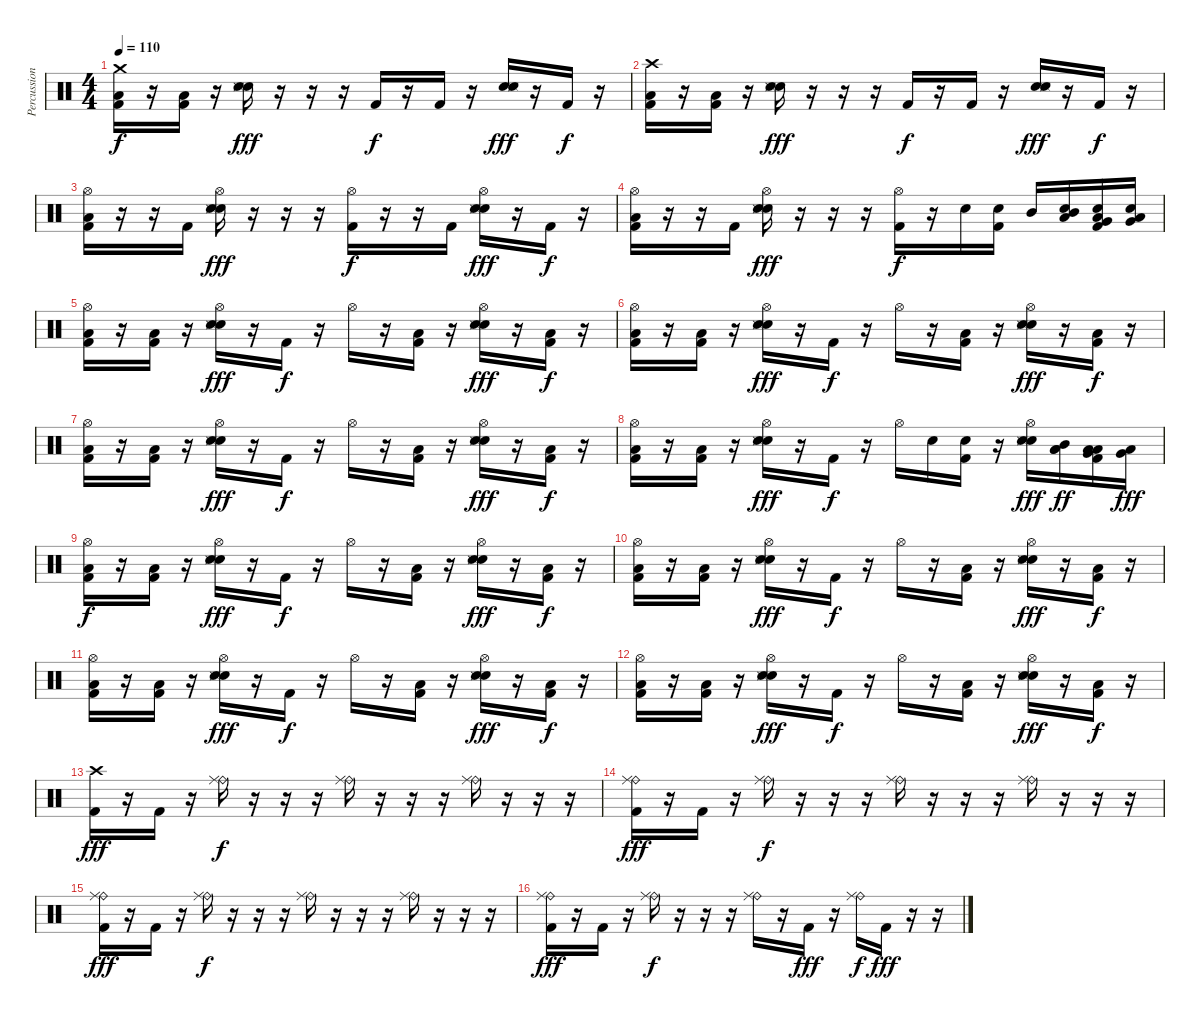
\track ("Percussion" "Percussion") {instrument percussion}
\staff {score}
\articulation defaults
\ts (4 4)
\tempo 110
\clef neutral
\ks c
("Crash medium (hit)" "Low Floor Tom (hit)" "Kick (hit) 2").16{dy f} r.16 ("Low Floor Tom (hit)" "Kick (hit) 2").16 r.16 ("Electric Snare (hit)" "Electric Snare (hit)" "Snare (side stick) 3").16{dy fff} r.16 r.16 r.16 "Kick (hit) 2".16{dy f} r.16 "Kick (hit) 2".16 r.16 ("Electric Snare (hit)" "Electric Snare (hit)" "Snare (side stick) 3").16{dy fff} r.16 "Kick (hit) 2".16{dy f} r.16 |
("Crash high (hit)" "Low Floor Tom (hit)" "Kick (hit) 2").16 r.16 ("Low Floor Tom (hit)" "Kick (hit) 2").16 r.16 ("Electric Snare (hit)" "Electric Snare (hit)" "Snare (side stick) 3").16{dy fff} r.16 r.16 r.16 "Kick (hit) 2".16{dy f} r.16 "Kick (hit) 2".16 r.16 ("Electric Snare (hit)" "Electric Snare (hit)" "Snare (side stick) 3").16{dy fff} r.16 "Kick (hit) 2".16{dy f} r.16 |
("Hi-Hat (open)" "Low Floor Tom (hit)" "Kick (hit) 2").16 r.16 r.16 "Kick (hit) 2".16 ("Hi-Hat (open)" "Electric Snare (hit)" "Electric Snare (hit)" "Snare (side stick) 3").16{dy fff} r.16 r.16 r.16 ("Hi-Hat (open)" "Kick (hit) 2").16{dy f} r.16 r.16 "Kick (hit) 2".16 ("Hi-Hat (open)" "Electric Snare (hit)" "Electric Snare (hit)" "Snare (side stick) 3").16{dy fff} r.16 "Kick (hit) 2".16{dy f} r.16 |
("Hi-Hat (open)" "Low Floor Tom (hit)" "Kick (hit) 2").16 r.16 r.16 "Kick (hit) 2".16 ("Hi-Hat (open)" "Electric Snare (hit)" "Electric Snare (hit)" "Snare (side stick) 3").16{dy fff} r.16 r.16 r.16 ("Hi-Hat (open)" "Kick (hit) 2").16{dy f} r.16 "Electric Snare (hit)".16 ("Electric Snare (hit)" "Kick (hit) 2").16 "Mid Tom (hit)".16 ("Mid Tom (hit)" "Low Tom (hit)" "Electric Snare (hit)").16 ("Low Tom (hit)" "Very Low Tom (hit)" "Electric Snare (hit)" "Kick (hit) 2").16 ("Very Low Tom (hit)" "Low Floor Tom (hit)" "Electric Snare (hit)").16 |
("Hi-Hat (open)" "Low Floor Tom (hit)" "Kick (hit) 2").16 r.16 ("Low Floor Tom (hit)" "Kick (hit) 2").16 r.16 ("Hi-Hat (open)" "Electric Snare (hit)" "Electric Snare (hit)" "Snare (side stick) 3").16{dy fff} r.16 "Kick (hit) 2".16{dy f} r.16 "Hi-Hat (open)".16 r.16 ("Low Floor Tom (hit)" "Kick (hit) 2").16 r.16 ("Hi-Hat (open)" "Electric Snare (hit)" "Electric Snare (hit)" "Snare (side stick) 3").16{dy fff} r.16 ("Low Floor Tom (hit)" "Kick (hit) 2").16{dy f} r.16 |
("Hi-Hat (open)" "Low Floor Tom (hit)" "Kick (hit) 2").16 r.16 ("Low Floor Tom (hit)" "Kick (hit) 2").16 r.16 ("Hi-Hat (open)" "Electric Snare (hit)" "Electric Snare (hit)" "Snare (side stick) 3").16{dy fff} r.16 "Kick (hit) 2".16{dy f} r.16 "Hi-Hat (open)".16 r.16 ("Low Floor Tom (hit)" "Kick (hit) 2").16 r.16 ("Hi-Hat (open)" "Electric Snare (hit)" "Electric Snare (hit)" "Snare (side stick) 3").16{dy fff} r.16 ("Low Floor Tom (hit)" "Kick (hit) 2").16{dy f} r.16 |
("Hi-Hat (open)" "Low Floor Tom (hit)" "Kick (hit) 2").16 r.16 ("Low Floor Tom (hit)" "Kick (hit) 2").16 r.16 ("Hi-Hat (open)" "Electric Snare (hit)" "Electric Snare (hit)" "Snare (side stick) 3").16{dy fff} r.16 "Kick (hit) 2".16{dy f} r.16 "Hi-Hat (open)".16 r.16 ("Low Floor Tom (hit)" "Kick (hit) 2").16 r.16 ("Hi-Hat (open)" "Electric Snare (hit)" "Electric Snare (hit)" "Snare (side stick) 3").16{dy fff} r.16 ("Low Floor Tom (hit)" "Kick (hit) 2").16{dy f} r.16 |
("Hi-Hat (open)" "Low Floor Tom (hit)" "Kick (hit) 2").16 r.16 ("Low Floor Tom (hit)" "Kick (hit) 2").16 r.16 ("Hi-Hat (open)" "Electric Snare (hit)" "Electric Snare (hit)" "Snare (side stick) 3").16{dy fff} r.16 "Kick (hit) 2".16{dy f} r.16 "Hi-Hat (open)".16 "Electric Snare (hit)".16 ("Electric Snare (hit)" "Kick (hit) 2").16 r.16 ("Hi-Hat (open)" "Electric Snare (hit)" "Electric Snare (hit)" "Snare (side stick) 3").16{dy fff} ("Mid Tom (hit)" "Low Tom (hit)" "Low Tom (hit)").16{dy ff} ("Low Tom (hit)" "Very Low Tom (hit)" "Low Floor Tom (hit)" "Kick (hit) 2").16 ("Very Low Tom (hit)" "Low Floor Tom (hit)").16{dy fff} |
("Hi-Hat (open)" "Low Floor Tom (hit)" "Kick (hit) 2").16{dy f} r.16 ("Low Floor Tom (hit)" "Kick (hit) 2").16 r.16 ("Hi-Hat (open)" "Electric Snare (hit)" "Electric Snare (hit)" "Snare (side stick) 3").16{dy fff} r.16 "Kick (hit) 2".16{dy f} r.16 "Hi-Hat (open)".16 r.16 ("Low Floor Tom (hit)" "Kick (hit) 2").16 r.16 ("Hi-Hat (open)" "Electric Snare (hit)" "Electric Snare (hit)" "Snare (side stick) 3").16{dy fff} r.16 ("Low Floor Tom (hit)" "Kick (hit) 2").16{dy f} r.16 |
("Hi-Hat (open)" "Low Floor Tom (hit)" "Kick (hit) 2").16 r.16 ("Low Floor Tom (hit)" "Kick (hit) 2").16 r.16 ("Hi-Hat (open)" "Electric Snare (hit)" "Electric Snare (hit)" "Snare (side stick) 3").16{dy fff} r.16 "Kick (hit) 2".16{dy f} r.16 "Hi-Hat (open)".16 r.16 ("Low Floor Tom (hit)" "Kick (hit) 2").16 r.16 ("Hi-Hat (open)" "Electric Snare (hit)" "Electric Snare (hit)" "Snare (side stick) 3").16{dy fff} r.16 ("Low Floor Tom (hit)" "Kick (hit) 2").16{dy f} r.16 |
("Hi-Hat (open)" "Low Floor Tom (hit)" "Kick (hit) 2").16 r.16 ("Low Floor Tom (hit)" "Kick (hit) 2").16 r.16 ("Hi-Hat (open)" "Electric Snare (hit)" "Electric Snare (hit)" "Snare (side stick) 3").16{dy fff} r.16 "Kick (hit) 2".16{dy f} r.16 "Hi-Hat (open)".16 r.16 ("Low Floor Tom (hit)" "Kick (hit) 2").16 r.16 ("Hi-Hat (open)" "Electric Snare (hit)" "Electric Snare (hit)" "Snare (side stick) 3").16{dy fff} r.16 ("Low Floor Tom (hit)" "Kick (hit) 2").16{dy f} r.16 |
("Hi-Hat (open)" "Low Floor Tom (hit)" "Kick (hit) 2").16 r.16 ("Low Floor Tom (hit)" "Kick (hit) 2").16 r.16 ("Hi-Hat (open)" "Electric Snare (hit)" "Electric Snare (hit)" "Snare (side stick) 3").16{dy fff} r.16 "Kick (hit) 2".16{dy f} r.16 "Hi-Hat (open)".16 r.16 ("Low Floor Tom (hit)" "Kick (hit) 2").16 r.16 ("Hi-Hat (open)" "Electric Snare (hit)" "Electric Snare (hit)" "Snare (side stick) 3").16{dy fff} r.16 ("Low Floor Tom (hit)" "Kick (hit) 2").16{dy f} r.16 |
("Crash high (hit)" "Kick (hit) 2").16{dy fff} r.16 "Kick (hit) 2".16 r.16 ("Ride (bell)" "Ride (middle)").16{dy f} r.16 r.16 r.16 ("Ride (bell)" "Ride (middle)").16 r.16 r.16 r.16 ("Ride (bell)" "Ride (middle)").16 r.16 r.16 r.16 |
("Ride (bell)" "Ride (middle)" "Kick (hit) 2").16{dy fff} r.16 "Kick (hit) 2".16 r.16 ("Ride (bell)" "Ride (middle)").16{dy f} r.16 r.16 r.16 ("Ride (bell)" "Ride (middle)").16 r.16 r.16 r.16 ("Ride (bell)" "Ride (middle)").16 r.16 r.16 r.16 |
("Ride (bell)" "Ride (middle)" "Kick (hit) 2").16{dy fff} r.16 "Kick (hit) 2".16 r.16 ("Ride (bell)" "Ride (middle)").16{dy f} r.16 r.16 r.16 ("Ride (bell)" "Ride (middle)").16 r.16 r.16 r.16 ("Ride (bell)" "Ride (middle)").16 r.16 r.16 r.16 |
("Ride (bell)" "Ride (middle)" "Kick (hit) 2").16{dy fff} r.16 "Kick (hit) 2".16 r.16 ("Ride (bell)" "Ride (middle)").16{dy f} r.16 r.16 r.16 ("Ride (bell)" "Ride (middle)").16 r.16 "Kick (hit) 2".16{dy fff} r.16 ("Ride (bell)" "Ride (middle)").16{dy f} "Kick (hit) 2".16{dy fff} r.16 r.16
